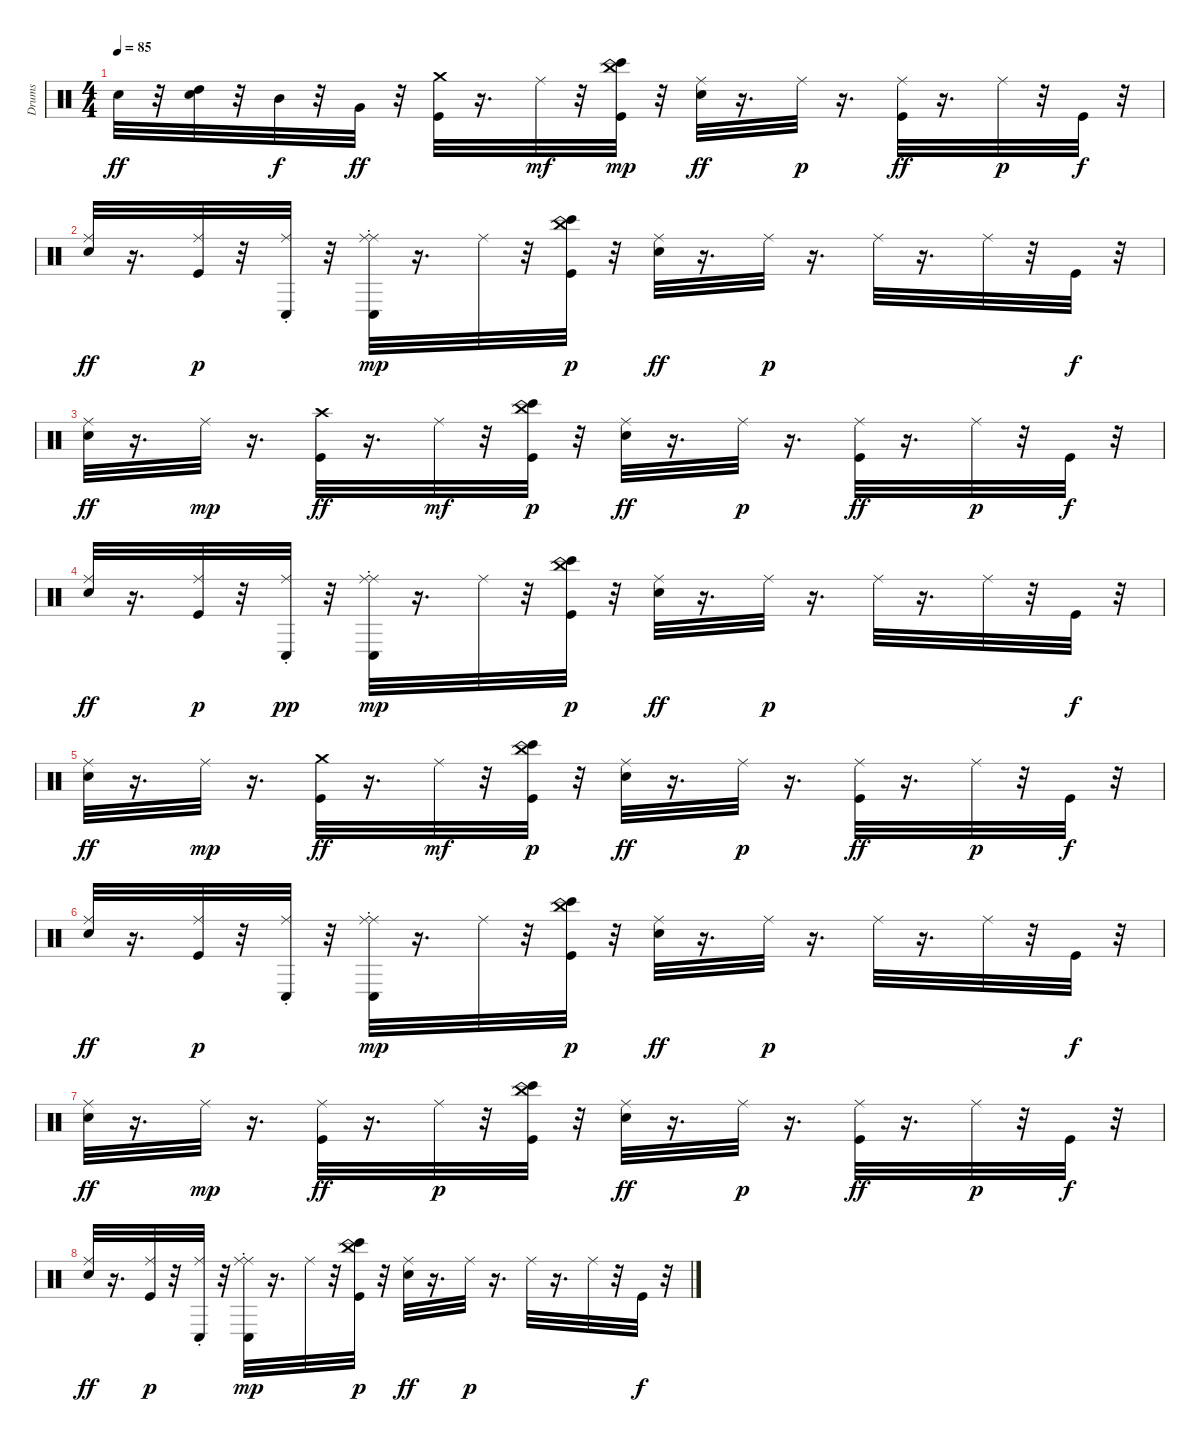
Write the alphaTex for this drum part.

\track ("Drums" "Drums") {instrument percussion}
\staff {score}
\articulation defaults
\ts (4 4)
\tempo 85
\clef neutral
\ks c "Electric Snare (hit)".32{dy ff}
r.32 ("Snare (hit)" "High Tom (hit)").32 r.32 "Mid Tom (hit)".32{dy f} r.32 "Very Low Tom (hit)".32{dy ff} r.32 ("Crash medium (hit)" "Kick (hit)").32 r.16{d} "Ride (middle)".32{dy mf} r.32 ("China (choke)" "Bongo High (hit)" "Kick (hit)").32{dy mp} r.32 ("Ride (middle)" "Electric Snare (hit)").32{dy ff} r.16{d} "Ride (middle)".32{dy p} r.16{d} ("Ride (middle)" "Kick (hit)").32{dy ff} r.16{d} "Ride (middle)".32{dy p} r.32 "Kick (hit)".32{dy f} r.32 |
("Ride (middle)" "Electric Snare (hit)").32{dy ff} r.16{d} ("Ride (middle)" "Kick (hit)").32{dy p} r.32 ("Conga low (hit)" "Ride (choke)").32 r.32 ("Conga low (hit)" "Ride (choke)" "Ride (middle)").32{dy mp} r.16{d} "Ride (middle)".32 r.32 ("Bongo High (hit)" "China (choke)" "Kick (hit)").32{dy p} r.32 ("Ride (middle)" "Electric Snare (hit)").32{dy ff} r.16{d} "Ride (middle)".32{dy p} r.16{d} "Ride (middle)".32 r.16{d} "Ride (middle)".32 r.32 "Kick (hit)".32{dy f} r.32 |
("Ride (middle)" "Electric Snare (hit)").32{dy ff} r.16{d} "Ride (middle)".32{dy mp} r.16{d} ("Crash high (hit)" "Kick (hit)").32{dy ff} r.16{d} "Ride (middle)".32{dy mf} r.32 ("Bongo High (hit)" "China (choke)" "Kick (hit)").32{dy p} r.32 ("Ride (middle)" "Electric Snare (hit)").32{dy ff} r.16{d} "Ride (middle)".32{dy p} r.16{d} ("Ride (middle)" "Kick (hit)").32{dy ff} r.16{d} "Ride (middle)".32{dy p} r.32 "Kick (hit)".32{dy f} r.32 |
("Ride (middle)" "Electric Snare (hit)").32{dy ff} r.16{d} ("Ride (middle)" "Kick (hit)").32{dy p} r.32 ("Conga low (hit)" "Ride (choke)").32{dy pp} r.32 ("Conga low (hit)" "Ride (choke)" "Ride (middle)").32{dy mp} r.16{d} "Ride (middle)".32 r.32 ("Bongo High (hit)" "China (choke)" "Kick (hit)").32{dy p} r.32 ("Ride (middle)" "Electric Snare (hit)").32{dy ff} r.16{d} "Ride (middle)".32{dy p} r.16{d} "Ride (middle)".32 r.16{d} "Ride (middle)".32 r.32 "Kick (hit)".32{dy f} r.32 |
("Ride (middle)" "Electric Snare (hit)").32{dy ff} r.16{d} "Ride (middle)".32{dy mp} r.16{d} ("Crash medium (hit)" "Kick (hit)").32{dy ff} r.16{d} "Ride (middle)".32{dy mf} r.32 ("Bongo High (hit)" "China (choke)" "Kick (hit)").32{dy p} r.32 ("Ride (middle)" "Electric Snare (hit)").32{dy ff} r.16{d} "Ride (middle)".32{dy p} r.16{d} ("Ride (middle)" "Kick (hit)").32{dy ff} r.16{d} "Ride (middle)".32{dy p} r.32 "Kick (hit)".32{dy f} r.32 |
("Ride (middle)" "Electric Snare (hit)").32{dy ff} r.16{d} ("Ride (middle)" "Kick (hit)").32{dy p} r.32 ("Conga low (hit)" "Ride (choke)").32 r.32 ("Conga low (hit)" "Ride (choke)" "Ride (middle)").32{dy mp} r.16{d} "Ride (middle)".32 r.32 ("Bongo High (hit)" "China (choke)" "Kick (hit)").32{dy p} r.32 ("Ride (middle)" "Electric Snare (hit)").32{dy ff} r.16{d} "Ride (middle)".32{dy p} r.16{d} "Ride (middle)".32 r.16{d} "Ride (middle)".32 r.32 "Kick (hit)".32{dy f} r.32 |
("Ride (middle)" "Electric Snare (hit)").32{dy ff} r.16{d} "Ride (middle)".32{dy mp} r.16{d} ("Ride (middle)" "Kick (hit)").32{dy ff} r.16{d} "Ride (middle)".32{dy p} r.32 ("Bongo High (hit)" "China (choke)" "Kick (hit)").32 r.32 ("Ride (middle)" "Electric Snare (hit)").32{dy ff} r.16{d} "Ride (middle)".32{dy p} r.16{d} ("Ride (middle)" "Kick (hit)").32{dy ff} r.16{d} "Ride (middle)".32{dy p} r.32 "Kick (hit)".32{dy f} r.32 |
("Ride (middle)" "Electric Snare (hit)").32{dy ff} r.16{d} ("Ride (middle)" "Kick (hit)").32{dy p} r.32 ("Ride (choke)" "Conga low (hit)").32 r.32 ("Ride (choke)" "Conga low (hit)" "Ride (middle)").32{dy mp} r.16{d} "Ride (middle)".32 r.32 ("Bongo High (hit)" "China (choke)" "Kick (hit)").32{dy p} r.32 ("Ride (middle)" "Electric Snare (hit)").32{dy ff} r.16{d} "Ride (middle)".32{dy p} r.16{d} "Ride (middle)".32 r.16{d} "Ride (middle)".32 r.32 "Kick (hit)".32{dy f} r.32
